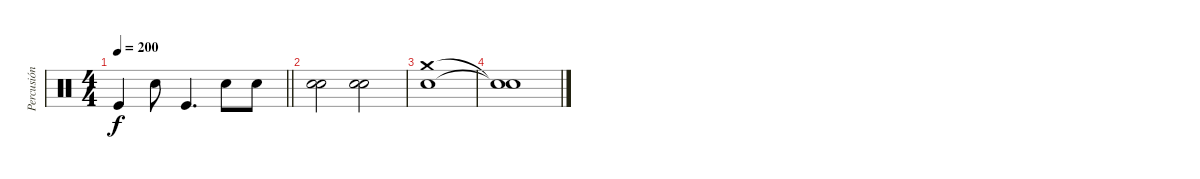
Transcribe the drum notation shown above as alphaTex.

\track ("Percusión" "Percusión") {instrument percussion}
\staff {score}
\articulation defaults
\ts (4 4)
\tempo 200
\clef neutral
\barLineRight lightlight
\ks c "Kick (hit)".4{dy f} "Snare (hit) 2".8 "Kick (hit)".4{d} "Snare (hit) 2".8 "Snare (hit) 2".8
|
("Electric Snare (hit)" "Snare (hit) 2").2 ("Electric Snare (hit)" "Snare (hit) 2").2 |
("Crash medium (hit)" "Snare (hit) 2").1 |
("Snare (hit)"{t} "Snare (hit)"{t}).1
